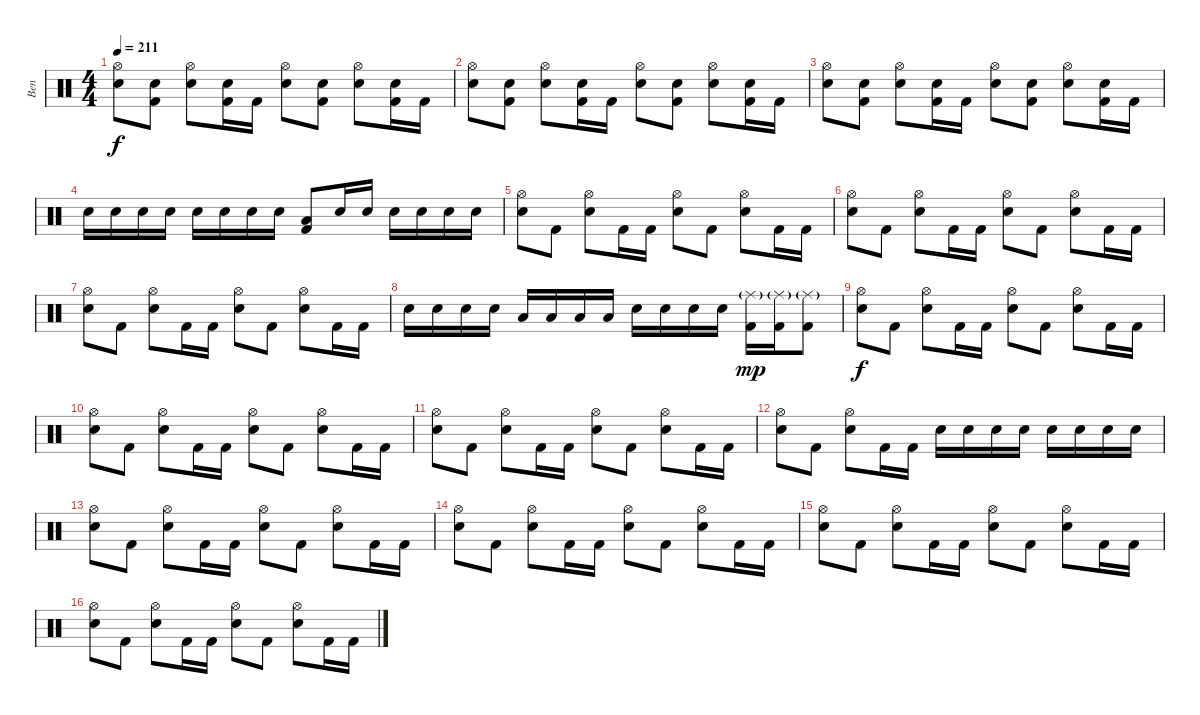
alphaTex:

\track ("Ben" "Ben") {instrument percussion}
\staff {score}
\articulation defaults
\ts (4 4)
\tempo 211
\clef neutral
\ks c
("Hi-Hat (open)" "Electric Snare (hit)").8{dy f} ("Electric Snare (hit)" "Kick (hit) 2").8 ("Hi-Hat (open)" "Electric Snare (hit)").8 ("Electric Snare (hit)" "Kick (hit) 2").16 "Kick (hit) 2".16 ("Hi-Hat (open)" "Electric Snare (hit)").8 ("Electric Snare (hit)" "Kick (hit) 2").8 ("Hi-Hat (open)" "Electric Snare (hit)").8 ("Electric Snare (hit)" "Kick (hit) 2").16 "Kick (hit) 2".16 |
("Hi-Hat (open)" "Electric Snare (hit)").8 ("Electric Snare (hit)" "Kick (hit) 2").8 ("Hi-Hat (open)" "Electric Snare (hit)").8 ("Electric Snare (hit)" "Kick (hit) 2").16 "Kick (hit) 2".16 ("Hi-Hat (open)" "Electric Snare (hit)").8 ("Electric Snare (hit)" "Kick (hit) 2").8 ("Hi-Hat (open)" "Electric Snare (hit)").8 ("Electric Snare (hit)" "Kick (hit) 2").16 "Kick (hit) 2".16 |
("Hi-Hat (open)" "Electric Snare (hit)").8 ("Electric Snare (hit)" "Kick (hit) 2").8 ("Hi-Hat (open)" "Electric Snare (hit)").8 ("Electric Snare (hit)" "Kick (hit) 2").16 "Kick (hit) 2".16 ("Hi-Hat (open)" "Electric Snare (hit)").8 ("Electric Snare (hit)" "Kick (hit) 2").8 ("Hi-Hat (open)" "Electric Snare (hit)").8 ("Electric Snare (hit)" "Kick (hit) 2").16 "Kick (hit) 2".16 |
"Electric Snare (hit)".16 "Electric Snare (hit)".16 "Electric Snare (hit)".16 "Electric Snare (hit)".16 "Electric Snare (hit)".16 "Electric Snare (hit)".16 "Electric Snare (hit)".16 "Electric Snare (hit)".16 ("Low Floor Tom (hit)" "Kick (hit) 2").8 "Electric Snare (hit)".16 "Electric Snare (hit)".16 "Electric Snare (hit)".16 "Electric Snare (hit)".16 "Electric Snare (hit)".16 "Electric Snare (hit)".16 |
("Hi-Hat (open)" "Electric Snare (hit)").8 "Kick (hit) 2".8 ("Hi-Hat (open)" "Electric Snare (hit)").8 "Kick (hit) 2".16 "Kick (hit) 2".16 ("Hi-Hat (open)" "Electric Snare (hit)").8 "Kick (hit) 2".8 ("Hi-Hat (open)" "Electric Snare (hit)").8 "Kick (hit) 2".16 "Kick (hit) 2".16 |
("Hi-Hat (open)" "Electric Snare (hit)").8 "Kick (hit) 2".8 ("Hi-Hat (open)" "Electric Snare (hit)").8 "Kick (hit) 2".16 "Kick (hit) 2".16 ("Hi-Hat (open)" "Electric Snare (hit)").8 "Kick (hit) 2".8 ("Hi-Hat (open)" "Electric Snare (hit)").8 "Kick (hit) 2".16 "Kick (hit) 2".16 |
("Hi-Hat (open)" "Electric Snare (hit)").8 "Kick (hit) 2".8 ("Hi-Hat (open)" "Electric Snare (hit)").8 "Kick (hit) 2".16 "Kick (hit) 2".16 ("Hi-Hat (open)" "Electric Snare (hit)").8 "Kick (hit) 2".8 ("Hi-Hat (open)" "Electric Snare (hit)").8 "Kick (hit) 2".16 "Kick (hit) 2".16 |
"Electric Snare (hit)".16 "Electric Snare (hit)".16 "Electric Snare (hit)".16 "Electric Snare (hit)".16 "Low Tom (hit)".16 "Low Tom (hit)".16 "Low Tom (hit)".16 "Low Tom (hit)".16 "Electric Snare (hit)".16 "Electric Snare (hit)".16 "Electric Snare (hit)".16 "Electric Snare (hit)".16 ("Ride (middle)"{g} "Kick (hit) 2").16{dy mp} ("Ride (middle)"{g} "Kick (hit) 2").16 ("Ride (middle)"{g} "Kick (hit) 2").8 |
("Hi-Hat (open)" "Electric Snare (hit)").8{dy f} "Kick (hit) 2".8 ("Hi-Hat (open)" "Electric Snare (hit)").8 "Kick (hit) 2".16 "Kick (hit) 2".16 ("Hi-Hat (open)" "Electric Snare (hit)").8 "Kick (hit) 2".8 ("Hi-Hat (open)" "Electric Snare (hit)").8 "Kick (hit) 2".16 "Kick (hit) 2".16 |
("Hi-Hat (open)" "Electric Snare (hit)").8 "Kick (hit) 2".8 ("Hi-Hat (open)" "Electric Snare (hit)").8 "Kick (hit) 2".16 "Kick (hit) 2".16 ("Hi-Hat (open)" "Electric Snare (hit)").8 "Kick (hit) 2".8 ("Hi-Hat (open)" "Electric Snare (hit)").8 "Kick (hit) 2".16 "Kick (hit) 2".16 |
("Hi-Hat (open)" "Electric Snare (hit)").8 "Kick (hit) 2".8 ("Hi-Hat (open)" "Electric Snare (hit)").8 "Kick (hit) 2".16 "Kick (hit) 2".16 ("Hi-Hat (open)" "Electric Snare (hit)").8 "Kick (hit) 2".8 ("Hi-Hat (open)" "Electric Snare (hit)").8 "Kick (hit) 2".16 "Kick (hit) 2".16 |
("Hi-Hat (open)" "Electric Snare (hit)").8 "Kick (hit) 2".8 ("Hi-Hat (open)" "Electric Snare (hit)").8 "Kick (hit) 2".16 "Kick (hit) 2".16 "Electric Snare (hit)".16 "Electric Snare (hit)".16 "Electric Snare (hit)".16 "Electric Snare (hit)".16 "Electric Snare (hit)".16 "Electric Snare (hit)".16 "Electric Snare (hit)".16 "Electric Snare (hit)".16 |
("Hi-Hat (open)" "Electric Snare (hit)").8 "Kick (hit) 2".8 ("Hi-Hat (open)" "Electric Snare (hit)").8 "Kick (hit) 2".16 "Kick (hit) 2".16 ("Hi-Hat (open)" "Electric Snare (hit)").8 "Kick (hit) 2".8 ("Hi-Hat (open)" "Electric Snare (hit)").8 "Kick (hit) 2".16 "Kick (hit) 2".16 |
("Hi-Hat (open)" "Electric Snare (hit)").8 "Kick (hit) 2".8 ("Hi-Hat (open)" "Electric Snare (hit)").8 "Kick (hit) 2".16 "Kick (hit) 2".16 ("Hi-Hat (open)" "Electric Snare (hit)").8 "Kick (hit) 2".8 ("Hi-Hat (open)" "Electric Snare (hit)").8 "Kick (hit) 2".16 "Kick (hit) 2".16 |
("Hi-Hat (open)" "Electric Snare (hit)").8 "Kick (hit) 2".8 ("Hi-Hat (open)" "Electric Snare (hit)").8 "Kick (hit) 2".16 "Kick (hit) 2".16 ("Hi-Hat (open)" "Electric Snare (hit)").8 "Kick (hit) 2".8 ("Hi-Hat (open)" "Electric Snare (hit)").8 "Kick (hit) 2".16 "Kick (hit) 2".16 |
("Hi-Hat (open)" "Electric Snare (hit)").8 "Kick (hit) 2".8 ("Hi-Hat (open)" "Electric Snare (hit)").8 "Kick (hit) 2".16 "Kick (hit) 2".16 ("Hi-Hat (open)" "Electric Snare (hit)").8 "Kick (hit) 2".8 ("Hi-Hat (open)" "Electric Snare (hit)").8 "Kick (hit) 2".16 "Kick (hit) 2".16
